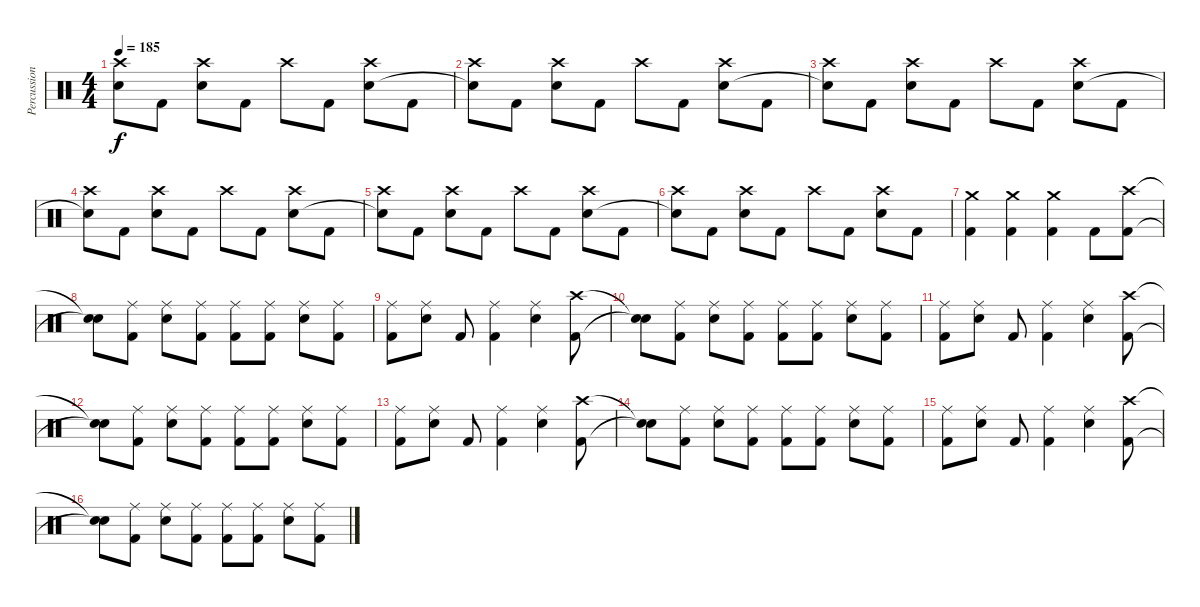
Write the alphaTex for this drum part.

\track ("Percussion" "Percussion") {instrument percussion}
\staff {score}
\articulation defaults
\ts (4 4)
\tempo 185
\clef neutral
\ks c
("Crash high (hit)" "Snare (hit)"{t}).8{dy f} "Kick (hit) 2".8 ("Crash high (hit)" "Electric Snare (hit)").8 "Kick (hit) 2".8 "Crash high (hit)".8 "Kick (hit) 2".8 ("Crash high (hit)" "Electric Snare (hit)").8 "Kick (hit) 2".8 |
("Crash high (hit)" "Snare (hit)"{t}).8 "Kick (hit) 2".8 ("Crash high (hit)" "Electric Snare (hit)").8 "Kick (hit) 2".8 "Crash high (hit)".8 "Kick (hit) 2".8 ("Crash high (hit)" "Electric Snare (hit)").8 "Kick (hit) 2".8 |
("Crash high (hit)" "Snare (hit)"{t}).8 "Kick (hit) 2".8 ("Crash high (hit)" "Electric Snare (hit)").8 "Kick (hit) 2".8 "Crash high (hit)".8 "Kick (hit) 2".8 ("Crash high (hit)" "Electric Snare (hit)").8 "Kick (hit) 2".8 |
("Crash high (hit)" "Snare (hit)"{t}).8 "Kick (hit) 2".8 ("Crash high (hit)" "Electric Snare (hit)").8 "Kick (hit) 2".8 "Crash high (hit)".8 "Kick (hit) 2".8 ("Crash high (hit)" "Electric Snare (hit)").8 "Kick (hit) 2".8 |
("Crash high (hit)" "Snare (hit)"{t}).8 "Kick (hit) 2".8 ("Crash high (hit)" "Electric Snare (hit)").8 "Kick (hit) 2".8 "Crash high (hit)".8 "Kick (hit) 2".8 ("Crash high (hit)" "Electric Snare (hit)").8 "Kick (hit) 2".8 |
("Crash high (hit)" "Snare (hit)"{t}).8 "Kick (hit) 2".8 ("Crash high (hit)" "Electric Snare (hit)").8 "Kick (hit) 2".8 "Crash high (hit)".8 "Kick (hit) 2".8 ("Crash high (hit)" "Electric Snare (hit)").8 "Kick (hit) 2".8 |
("Crash medium (hit)" "Kick (hit) 2").4 ("Crash medium (hit)" "Kick (hit) 2").4 ("Crash medium (hit)" "Kick (hit) 2").4 "Kick (hit) 2".8 ("Crash high (hit)" "Kick (hit) 2").8 |
("Snare (hit)"{t} "Snare (hit)"{t}).8 ("Ride (middle)" "Kick (hit) 2").8 ("Ride (middle)" "Electric Snare (hit)").8 ("Ride (middle)" "Kick (hit) 2").8 ("Ride (middle)" "Kick (hit) 2").8 ("Ride (middle)" "Kick (hit) 2").8 ("Ride (middle)" "Electric Snare (hit)").8 ("Ride (middle)" "Kick (hit) 2").8 |
("Ride (middle)" "Kick (hit) 2").8 ("Ride (middle)" "Electric Snare (hit)").8 "Kick (hit) 2".8 ("Ride (middle)" "Kick (hit) 2").4 ("Ride (middle)" "Electric Snare (hit)").4 ("Crash high (hit)" "Kick (hit) 2").8 |
("Snare (hit)"{t} "Snare (hit)"{t}).8 ("Ride (middle)" "Kick (hit) 2").8 ("Ride (middle)" "Electric Snare (hit)").8 ("Ride (middle)" "Kick (hit) 2").8 ("Ride (middle)" "Kick (hit) 2").8 ("Ride (middle)" "Kick (hit) 2").8 ("Ride (middle)" "Electric Snare (hit)").8 ("Ride (middle)" "Kick (hit) 2").8 |
("Ride (middle)" "Kick (hit) 2").8 ("Ride (middle)" "Electric Snare (hit)").8 "Kick (hit) 2".8 ("Ride (middle)" "Kick (hit) 2").4 ("Ride (middle)" "Electric Snare (hit)").4 ("Crash high (hit)" "Kick (hit) 2").8 |
("Snare (hit)"{t} "Snare (hit)"{t}).8 ("Ride (middle)" "Kick (hit) 2").8 ("Ride (middle)" "Electric Snare (hit)").8 ("Ride (middle)" "Kick (hit) 2").8 ("Ride (middle)" "Kick (hit) 2").8 ("Ride (middle)" "Kick (hit) 2").8 ("Ride (middle)" "Electric Snare (hit)").8 ("Ride (middle)" "Kick (hit) 2").8 |
("Ride (middle)" "Kick (hit) 2").8 ("Ride (middle)" "Electric Snare (hit)").8 "Kick (hit) 2".8 ("Ride (middle)" "Kick (hit) 2").4 ("Ride (middle)" "Electric Snare (hit)").4 ("Crash high (hit)" "Kick (hit) 2").8 |
("Snare (hit)"{t} "Snare (hit)"{t}).8 ("Ride (middle)" "Kick (hit) 2").8 ("Ride (middle)" "Electric Snare (hit)").8 ("Ride (middle)" "Kick (hit) 2").8 ("Ride (middle)" "Kick (hit) 2").8 ("Ride (middle)" "Kick (hit) 2").8 ("Ride (middle)" "Electric Snare (hit)").8 ("Ride (middle)" "Kick (hit) 2").8 |
("Ride (middle)" "Kick (hit) 2").8 ("Ride (middle)" "Electric Snare (hit)").8 "Kick (hit) 2".8 ("Ride (middle)" "Kick (hit) 2").4 ("Ride (middle)" "Electric Snare (hit)").4 ("Crash high (hit)" "Kick (hit) 2").8 |
("Snare (hit)"{t} "Snare (hit)"{t}).8 ("Ride (middle)" "Kick (hit) 2").8 ("Ride (middle)" "Electric Snare (hit)").8 ("Ride (middle)" "Kick (hit) 2").8 ("Ride (middle)" "Kick (hit) 2").8 ("Ride (middle)" "Kick (hit) 2").8 ("Ride (middle)" "Electric Snare (hit)").8 ("Ride (middle)" "Kick (hit) 2").8
